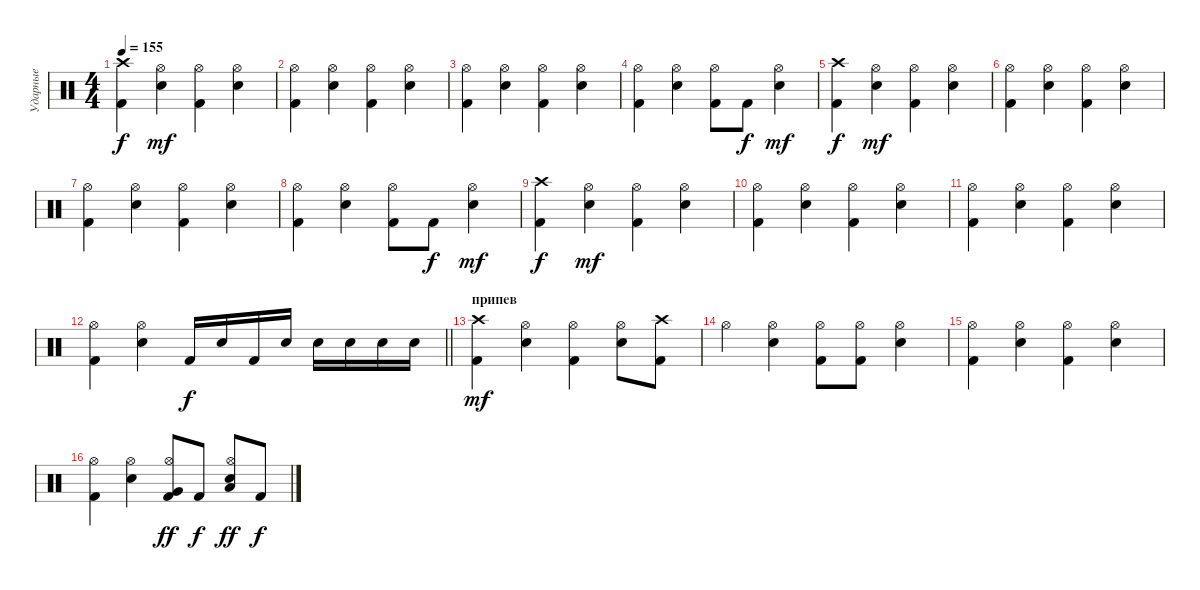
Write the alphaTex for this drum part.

\track ("Ударные" "Ударные") {instrument percussion}
\staff {score}
\articulation defaults
\ts (4 4)
\tempo 155
\clef neutral
\ks c
("Kick (hit) 2" "Crash high (hit)").4{dy f} ("Snare (hit) 2" "Hi-Hat (open)").4{dy mf} ("Kick (hit) 2" "Hi-Hat (open)").4 ("Snare (hit) 2" "Hi-Hat (open)").4 |
("Kick (hit) 2" "Hi-Hat (open)").4 ("Snare (hit) 2" "Hi-Hat (open)").4 ("Kick (hit) 2" "Hi-Hat (open)").4 ("Snare (hit) 2" "Hi-Hat (open)").4 |
("Kick (hit) 2" "Hi-Hat (open)").4 ("Snare (hit) 2" "Hi-Hat (open)").4 ("Kick (hit) 2" "Hi-Hat (open)").4 ("Snare (hit) 2" "Hi-Hat (open)").4 |
("Kick (hit) 2" "Hi-Hat (open)").4 ("Snare (hit) 2" "Hi-Hat (open)").4 ("Kick (hit) 2" "Hi-Hat (open)").8 "Kick (hit) 2".8{dy f} ("Snare (hit) 2" "Hi-Hat (open)").4{dy mf} |
("Kick (hit) 2" "Crash high (hit)").4{dy f} ("Snare (hit) 2" "Hi-Hat (open)").4{dy mf} ("Kick (hit) 2" "Hi-Hat (open)").4 ("Snare (hit) 2" "Hi-Hat (open)").4 |
("Kick (hit) 2" "Hi-Hat (open)").4 ("Snare (hit) 2" "Hi-Hat (open)").4 ("Kick (hit) 2" "Hi-Hat (open)").4 ("Snare (hit) 2" "Hi-Hat (open)").4 |
("Kick (hit) 2" "Hi-Hat (open)").4 ("Snare (hit) 2" "Hi-Hat (open)").4 ("Kick (hit) 2" "Hi-Hat (open)").4 ("Snare (hit) 2" "Hi-Hat (open)").4 |
("Kick (hit) 2" "Hi-Hat (open)").4 ("Snare (hit) 2" "Hi-Hat (open)").4 ("Kick (hit) 2" "Hi-Hat (open)").8 "Kick (hit) 2".8{dy f} ("Snare (hit) 2" "Hi-Hat (open)").4{dy mf} |
("Kick (hit) 2" "Crash high (hit)").4{dy f} ("Snare (hit) 2" "Hi-Hat (open)").4{dy mf} ("Kick (hit) 2" "Hi-Hat (open)").4 ("Snare (hit) 2" "Hi-Hat (open)").4 |
("Kick (hit) 2" "Hi-Hat (open)").4 ("Snare (hit) 2" "Hi-Hat (open)").4 ("Kick (hit) 2" "Hi-Hat (open)").4 ("Snare (hit) 2" "Hi-Hat (open)").4 |
("Kick (hit) 2" "Hi-Hat (open)").4 ("Snare (hit) 2" "Hi-Hat (open)").4 ("Kick (hit) 2" "Hi-Hat (open)").4 ("Snare (hit) 2" "Hi-Hat (open)").4 |
\barLineRight lightlight
("Kick (hit) 2" "Hi-Hat (open)").4 ("Snare (hit) 2" "Hi-Hat (open)").4 "Kick (hit) 2".16{dy f} "Snare (hit) 2".16 "Kick (hit) 2".16 "Snare (hit) 2".16 "Snare (hit) 2".16 "Snare (hit) 2".16 "Snare (hit) 2".16 "Snare (hit) 2".16 |
\section ("" "припев")
("Kick (hit) 2" "Crash high (hit)").4{dy mf} ("Snare (hit) 2" "Hi-Hat (open)").4 ("Kick (hit) 2" "Hi-Hat (open)").4 ("Snare (hit) 2" "Hi-Hat (open)").8 ("Kick (hit) 2" "Crash high (hit)").8 |
"Hi-Hat (open)".4 ("Snare (hit) 2" "Hi-Hat (open)").4 ("Kick (hit) 2" "Hi-Hat (open)").8 ("Kick (hit) 2" "Hi-Hat (open)").8 ("Snare (hit) 2" "Hi-Hat (open)").4 |
("Kick (hit) 2" "Hi-Hat (open)").4 ("Snare (hit) 2" "Hi-Hat (open)").4 ("Kick (hit) 2" "Hi-Hat (open)").4 ("Snare (hit) 2" "Hi-Hat (open)").4 |
("Kick (hit) 2" "Hi-Hat (open)").4 ("Snare (hit) 2" "Hi-Hat (open)").4 ("Kick (hit) 2" "Hi-Hat (open)" "Very Low Tom (hit)").8{dy ff} "Kick (hit) 2".8{dy f} ("Snare (hit) 2" "Hi-Hat (open)" "Low Floor Tom (hit)").8{dy ff} "Kick (hit) 2".8{dy f}
